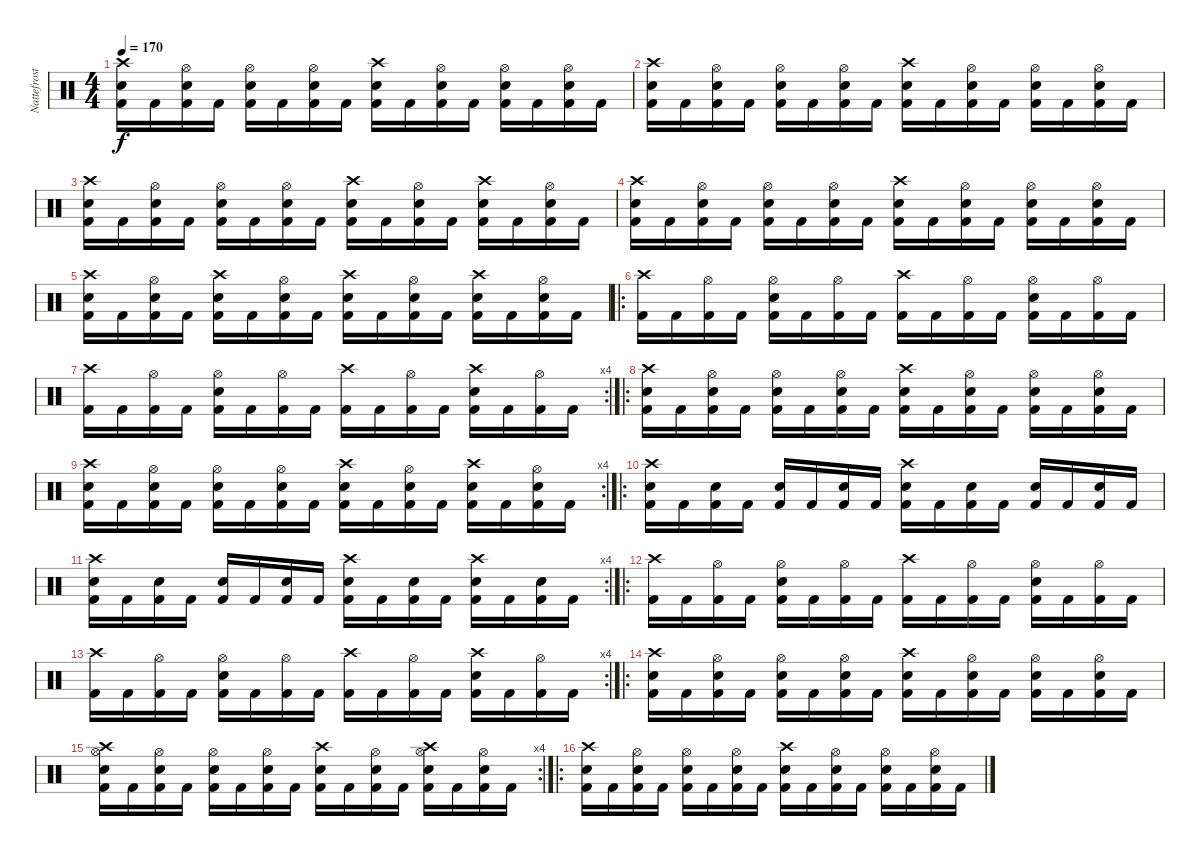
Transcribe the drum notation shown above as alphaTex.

\track ("Nattefrost" "Nattefrost") {instrument percussion}
\staff {score}
\articulation defaults
\ts (4 4)
\tempo 170
\clef neutral
\ks c
("Crash high (hit)" "Snare (hit) 2" "Kick (hit) 2").16{dy f} "Kick (hit) 2".16 ("Hi-Hat (open)" "Snare (hit) 2" "Kick (hit) 2").16 "Kick (hit) 2".16 ("Hi-Hat (open)" "Snare (hit) 2" "Kick (hit) 2").16 "Kick (hit) 2".16 ("Hi-Hat (open)" "Snare (hit) 2" "Kick (hit) 2").16 "Kick (hit) 2".16 ("Crash high (hit)" "Snare (hit) 2" "Kick (hit) 2").16 "Kick (hit) 2".16 ("Hi-Hat (open)" "Snare (hit) 2" "Kick (hit) 2").16 "Kick (hit) 2".16 ("Hi-Hat (open)" "Snare (hit) 2" "Kick (hit) 2").16 "Kick (hit) 2".16 ("Hi-Hat (open)" "Snare (hit) 2" "Kick (hit) 2").16 "Kick (hit) 2".16 |
("Crash high (hit)" "Snare (hit) 2" "Kick (hit) 2").16 "Kick (hit) 2".16 ("Hi-Hat (open)" "Snare (hit) 2" "Kick (hit) 2").16 "Kick (hit) 2".16 ("Hi-Hat (open)" "Snare (hit) 2" "Kick (hit) 2").16 "Kick (hit) 2".16 ("Hi-Hat (open)" "Snare (hit) 2" "Kick (hit) 2").16 "Kick (hit) 2".16 ("Crash high (hit)" "Snare (hit) 2" "Kick (hit) 2").16 "Kick (hit) 2".16 ("Hi-Hat (open)" "Snare (hit) 2" "Kick (hit) 2").16 "Kick (hit) 2".16 ("Hi-Hat (open)" "Snare (hit) 2" "Kick (hit) 2").16 "Kick (hit) 2".16 ("Hi-Hat (open)" "Snare (hit) 2" "Kick (hit) 2").16 "Kick (hit) 2".16 |
("Crash high (hit)" "Snare (hit) 2" "Kick (hit) 2").16 "Kick (hit) 2".16 ("Hi-Hat (open)" "Snare (hit) 2" "Kick (hit) 2").16 "Kick (hit) 2".16 ("Hi-Hat (open)" "Snare (hit) 2" "Kick (hit) 2").16 "Kick (hit) 2".16 ("Hi-Hat (open)" "Snare (hit) 2" "Kick (hit) 2").16 "Kick (hit) 2".16 ("Crash high (hit)" "Snare (hit) 2" "Kick (hit) 2").16 "Kick (hit) 2".16 ("Hi-Hat (open)" "Snare (hit) 2" "Kick (hit) 2").16 "Kick (hit) 2".16 ("Crash high (hit)" "Snare (hit) 2" "Kick (hit) 2").16 "Kick (hit) 2".16 ("Hi-Hat (open)" "Snare (hit) 2" "Kick (hit) 2").16 "Kick (hit) 2".16 |
("Crash high (hit)" "Snare (hit) 2" "Kick (hit) 2").16 "Kick (hit) 2".16 ("Hi-Hat (open)" "Snare (hit) 2" "Kick (hit) 2").16 "Kick (hit) 2".16 ("Hi-Hat (open)" "Snare (hit) 2" "Kick (hit) 2").16 "Kick (hit) 2".16 ("Hi-Hat (open)" "Snare (hit) 2" "Kick (hit) 2").16 "Kick (hit) 2".16 ("Crash high (hit)" "Snare (hit) 2" "Kick (hit) 2").16 "Kick (hit) 2".16 ("Hi-Hat (open)" "Snare (hit) 2" "Kick (hit) 2").16 "Kick (hit) 2".16 ("Hi-Hat (open)" "Snare (hit) 2" "Kick (hit) 2").16 "Kick (hit) 2".16 ("Hi-Hat (open)" "Snare (hit) 2" "Kick (hit) 2").16 "Kick (hit) 2".16 |
("Crash high (hit)" "Snare (hit) 2" "Kick (hit) 2").16 "Kick (hit) 2".16 ("Hi-Hat (open)" "Snare (hit) 2" "Kick (hit) 2").16 "Kick (hit) 2".16 ("Crash high (hit)" "Snare (hit) 2" "Kick (hit) 2").16 "Kick (hit) 2".16 ("Hi-Hat (open)" "Snare (hit) 2" "Kick (hit) 2").16 "Kick (hit) 2".16 ("Crash high (hit)" "Snare (hit) 2" "Kick (hit) 2").16 "Kick (hit) 2".16 ("Hi-Hat (open)" "Snare (hit) 2" "Kick (hit) 2").16 "Kick (hit) 2".16 ("Crash high (hit)" "Snare (hit) 2" "Kick (hit) 2").16 "Kick (hit) 2".16 ("Hi-Hat (open)" "Snare (hit) 2" "Kick (hit) 2").16 "Kick (hit) 2".16 |
\ro
("Crash high (hit)" "Kick (hit) 2").16 "Kick (hit) 2".16 ("Hi-Hat (open)" "Kick (hit) 2").16 "Kick (hit) 2".16 ("Hi-Hat (open)" "Snare (hit) 2" "Kick (hit) 2").16 "Kick (hit) 2".16 ("Hi-Hat (open)" "Kick (hit) 2").16 "Kick (hit) 2".16 ("Crash high (hit)" "Kick (hit) 2").16 "Kick (hit) 2".16 ("Hi-Hat (open)" "Kick (hit) 2").16 "Kick (hit) 2".16 ("Hi-Hat (open)" "Snare (hit) 2" "Kick (hit) 2").16 "Kick (hit) 2".16 ("Hi-Hat (open)" "Kick (hit) 2").16 "Kick (hit) 2".16 |
\rc 4
("Crash high (hit)" "Kick (hit) 2").16 "Kick (hit) 2".16 ("Hi-Hat (open)" "Kick (hit) 2").16 "Kick (hit) 2".16 ("Hi-Hat (open)" "Snare (hit) 2" "Kick (hit) 2").16 "Kick (hit) 2".16 ("Hi-Hat (open)" "Kick (hit) 2").16 "Kick (hit) 2".16 ("Crash high (hit)" "Kick (hit) 2").16 "Kick (hit) 2".16 ("Hi-Hat (open)" "Kick (hit) 2").16 "Kick (hit) 2".16 ("Crash high (hit)" "Snare (hit) 2" "Kick (hit) 2").16 "Kick (hit) 2".16 ("Hi-Hat (open)" "Kick (hit) 2").16 "Kick (hit) 2".16 |
\ro
("Crash high (hit)" "Snare (hit) 2" "Kick (hit) 2").16 "Kick (hit) 2".16 ("Hi-Hat (open)" "Snare (hit) 2" "Kick (hit) 2").16 "Kick (hit) 2".16 ("Hi-Hat (open)" "Snare (hit) 2" "Kick (hit) 2").16 "Kick (hit) 2".16 ("Hi-Hat (open)" "Snare (hit) 2" "Kick (hit) 2").16 "Kick (hit) 2".16 ("Crash high (hit)" "Snare (hit) 2" "Kick (hit) 2").16 "Kick (hit) 2".16 ("Hi-Hat (open)" "Snare (hit) 2" "Kick (hit) 2").16 "Kick (hit) 2".16 ("Hi-Hat (open)" "Snare (hit) 2" "Kick (hit) 2").16 "Kick (hit) 2".16 ("Hi-Hat (open)" "Snare (hit) 2" "Kick (hit) 2").16 "Kick (hit) 2".16 |
\rc 4
("Crash high (hit)" "Snare (hit) 2" "Kick (hit) 2").16 "Kick (hit) 2".16 ("Hi-Hat (open)" "Snare (hit) 2" "Kick (hit) 2").16 "Kick (hit) 2".16 ("Hi-Hat (open)" "Snare (hit) 2" "Kick (hit) 2").16 "Kick (hit) 2".16 ("Hi-Hat (open)" "Snare (hit) 2" "Kick (hit) 2").16 "Kick (hit) 2".16 ("Crash high (hit)" "Snare (hit) 2" "Kick (hit) 2").16 "Kick (hit) 2".16 ("Hi-Hat (open)" "Snare (hit) 2" "Kick (hit) 2").16 "Kick (hit) 2".16 ("Crash high (hit)" "Snare (hit) 2" "Kick (hit) 2").16 "Kick (hit) 2".16 ("Hi-Hat (open)" "Snare (hit) 2" "Kick (hit) 2").16 "Kick (hit) 2".16 |
\ro
("Crash high (hit)" "Snare (hit) 2" "Kick (hit) 2").16 "Kick (hit) 2".16 ("Snare (hit) 2" "Kick (hit) 2").16 "Kick (hit) 2".16 ("Snare (hit) 2" "Kick (hit) 2").16 "Kick (hit) 2".16 ("Snare (hit) 2" "Kick (hit) 2").16 "Kick (hit) 2".16 ("Crash high (hit)" "Snare (hit) 2" "Kick (hit) 2").16 "Kick (hit) 2".16 ("Snare (hit) 2" "Kick (hit) 2").16 "Kick (hit) 2".16 ("Snare (hit) 2" "Kick (hit) 2").16 "Kick (hit) 2".16 ("Snare (hit) 2" "Kick (hit) 2").16 "Kick (hit) 2".16 |
\rc 4
("Crash high (hit)" "Snare (hit) 2" "Kick (hit) 2").16 "Kick (hit) 2".16 ("Snare (hit) 2" "Kick (hit) 2").16 "Kick (hit) 2".16 ("Snare (hit) 2" "Kick (hit) 2").16 "Kick (hit) 2".16 ("Snare (hit) 2" "Kick (hit) 2").16 "Kick (hit) 2".16 ("Crash high (hit)" "Snare (hit) 2" "Kick (hit) 2").16 "Kick (hit) 2".16 ("Snare (hit) 2" "Kick (hit) 2").16 "Kick (hit) 2".16 ("Crash high (hit)" "Snare (hit) 2" "Kick (hit) 2").16 "Kick (hit) 2".16 ("Snare (hit) 2" "Kick (hit) 2").16 "Kick (hit) 2".16 |
\ro
("Crash high (hit)" "Kick (hit) 2").16 "Kick (hit) 2".16 ("Hi-Hat (open)" "Kick (hit) 2").16 "Kick (hit) 2".16 ("Hi-Hat (open)" "Snare (hit) 2" "Kick (hit) 2").16 "Kick (hit) 2".16 ("Hi-Hat (open)" "Kick (hit) 2").16 "Kick (hit) 2".16 ("Crash high (hit)" "Kick (hit) 2").16 "Kick (hit) 2".16 ("Hi-Hat (open)" "Kick (hit) 2").16 "Kick (hit) 2".16 ("Hi-Hat (open)" "Snare (hit) 2" "Kick (hit) 2").16 "Kick (hit) 2".16 ("Hi-Hat (open)" "Kick (hit) 2").16 "Kick (hit) 2".16 |
\rc 4
("Crash high (hit)" "Kick (hit) 2").16 "Kick (hit) 2".16 ("Hi-Hat (open)" "Kick (hit) 2").16 "Kick (hit) 2".16 ("Hi-Hat (open)" "Snare (hit) 2" "Kick (hit) 2").16 "Kick (hit) 2".16 ("Hi-Hat (open)" "Kick (hit) 2").16 "Kick (hit) 2".16 ("Crash high (hit)" "Kick (hit) 2").16 "Kick (hit) 2".16 ("Hi-Hat (open)" "Kick (hit) 2").16 "Kick (hit) 2".16 ("Crash high (hit)" "Snare (hit) 2" "Kick (hit) 2").16 "Kick (hit) 2".16 ("Hi-Hat (open)" "Kick (hit) 2").16 "Kick (hit) 2".16 |
\ro
("Crash high (hit)" "Snare (hit) 2" "Kick (hit) 2").16 "Kick (hit) 2".16 ("Hi-Hat (open)" "Snare (hit) 2" "Kick (hit) 2").16 "Kick (hit) 2".16 ("Hi-Hat (open)" "Snare (hit) 2" "Kick (hit) 2").16 "Kick (hit) 2".16 ("Hi-Hat (open)" "Snare (hit) 2" "Kick (hit) 2").16 "Kick (hit) 2".16 ("Crash high (hit)" "Snare (hit) 2" "Kick (hit) 2").16 "Kick (hit) 2".16 ("Hi-Hat (open)" "Snare (hit) 2" "Kick (hit) 2").16 "Kick (hit) 2".16 ("Hi-Hat (open)" "Snare (hit) 2" "Kick (hit) 2").16 "Kick (hit) 2".16 ("Hi-Hat (open)" "Snare (hit) 2" "Kick (hit) 2").16 "Kick (hit) 2".16 |
\rc 4
("Crash high (hit)" "Hi-Hat (open)" "Snare (hit) 2" "Kick (hit) 2").16 "Kick (hit) 2".16 ("Hi-Hat (open)" "Snare (hit) 2" "Kick (hit) 2").16 "Kick (hit) 2".16 ("Hi-Hat (open)" "Snare (hit) 2" "Kick (hit) 2").16 "Kick (hit) 2".16 ("Hi-Hat (open)" "Snare (hit) 2" "Kick (hit) 2").16 "Kick (hit) 2".16 ("Crash high (hit)" "Snare (hit) 2" "Kick (hit) 2").16 "Kick (hit) 2".16 ("Hi-Hat (open)" "Snare (hit) 2" "Kick (hit) 2").16 "Kick (hit) 2".16 ("Crash high (hit)" "Hi-Hat (open)" "Snare (hit) 2" "Kick (hit) 2").16 "Kick (hit) 2".16 ("Hi-Hat (open)" "Snare (hit) 2" "Kick (hit) 2").16 "Kick (hit) 2".16 |
\ro
("Crash high (hit)" "Snare (hit) 2" "Kick (hit) 2").16 "Kick (hit) 2".16 ("Hi-Hat (open)" "Snare (hit) 2" "Kick (hit) 2").16 "Kick (hit) 2".16 ("Hi-Hat (open)" "Snare (hit) 2" "Kick (hit) 2").16 "Kick (hit) 2".16 ("Hi-Hat (open)" "Snare (hit) 2" "Kick (hit) 2").16 "Kick (hit) 2".16 ("Crash high (hit)" "Snare (hit) 2" "Kick (hit) 2").16 "Kick (hit) 2".16 ("Hi-Hat (open)" "Snare (hit) 2" "Kick (hit) 2").16 "Kick (hit) 2".16 ("Hi-Hat (open)" "Snare (hit) 2" "Kick (hit) 2").16 "Kick (hit) 2".16 ("Hi-Hat (open)" "Snare (hit) 2" "Kick (hit) 2").16 "Kick (hit) 2".16
